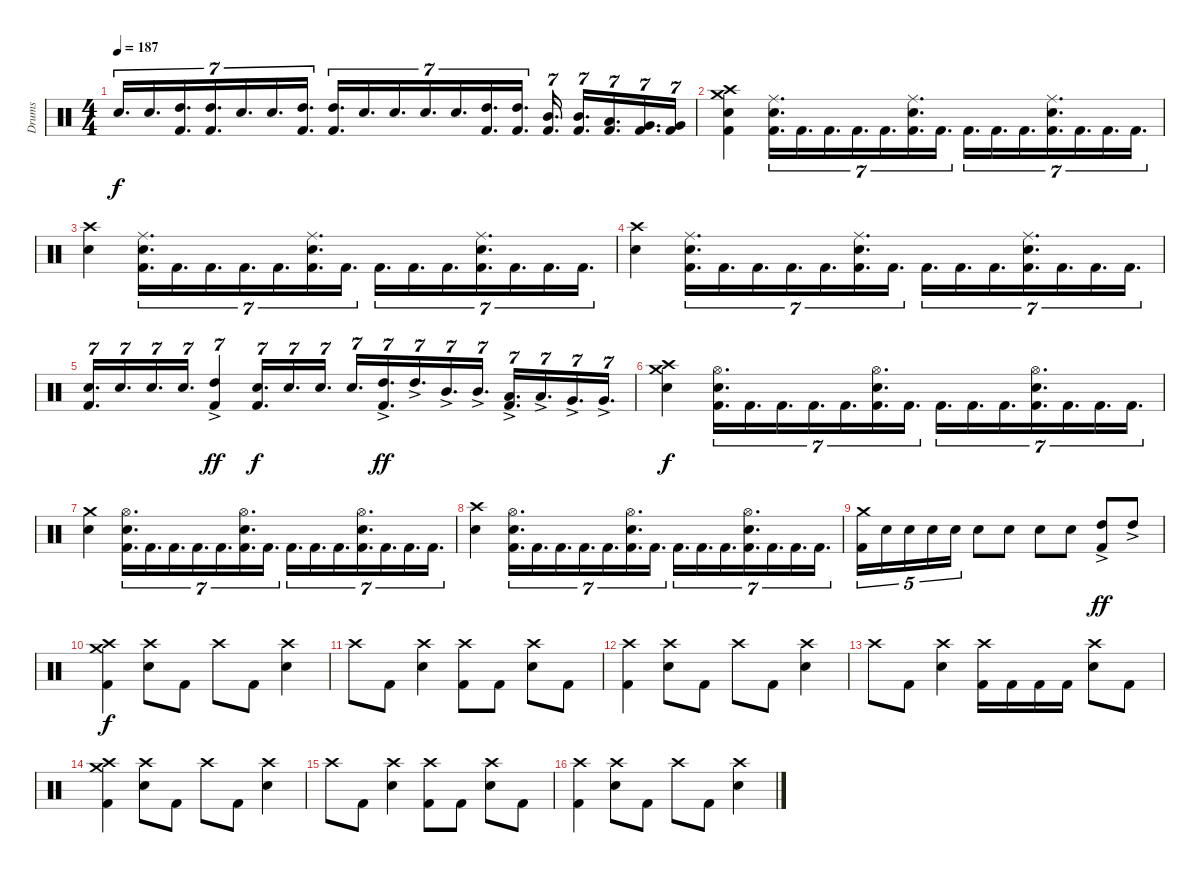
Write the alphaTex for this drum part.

\track ("Drums" "Drums") {instrument percussion}
\staff {score}
\articulation defaults
\ts (4 4)
\tempo 187
\clef neutral
\ks c "Snare (hit) 2".16{d tu (7 4) dy f} "Snare (hit) 2".16{d tu (7 4)}
("High Tom (hit)" "Kick (hit) 2").16{d tu (7 4)} ("High Tom (hit)" "Kick (hit) 2").16{d tu (7 4)} "Snare (hit) 2".16{d tu (7 4)} "Snare (hit) 2".16{d tu (7 4)} ("High Tom (hit)" "Kick (hit) 2").16{d tu (7 4)} ("High Tom (hit)" "Kick (hit) 2").16{d tu (7 4)} "Snare (hit) 2".16{d tu (7 4)} "Snare (hit) 2".16{d tu (7 4)} "Snare (hit) 2".16{d tu (7 4)} "Snare (hit) 2".16{d tu (7 4)} ("High Tom (hit)" "Kick (hit) 2").16{d tu (7 4)} ("High Tom (hit)" "Kick (hit) 2").16{d tu (7 4)} ("Mid Tom (hit)" "Kick (hit) 2").16{d tu (7 4)} ("Mid Tom (hit)" "Kick (hit) 2").16{d tu (7 4)} ("Low Tom (hit)" "Kick (hit) 2").16{d tu (7 4)} ("Very Low Tom (hit)" "Kick (hit) 2").16{d tu (7 4)} ("Very Low Tom (hit)" "Kick (hit) 2").16{tu (7 4)} |
("Crash high (hit)" "Crash medium (hit)" "Kick (hit) 2" "Snare (hit) 2").4 ("Ride (middle)" "Snare (hit) 2" "Kick (hit) 2").16{d tu (7 4)} "Kick (hit) 2".16{d tu (7 4)} "Kick (hit) 2".16{d tu (7 4)} "Kick (hit) 2".16{d tu (7 4)} "Kick (hit) 2".16{d tu (7 4)} ("Ride (middle)" "Snare (hit) 2" "Kick (hit) 2").16{d tu (7 4)} "Kick (hit) 2".16{d tu (7 4)} "Kick (hit) 2".16{d tu (7 4)} "Kick (hit) 2".16{d tu (7 4)} "Kick (hit) 2".16{d tu (7 4)} ("Kick (hit) 2" "Snare (hit) 2" "Ride (middle)").16{d tu (7 4)} "Kick (hit) 2".16{d tu (7 4)} "Kick (hit) 2".16{d tu (7 4)} "Kick (hit) 2".16{d tu (7 4)} |
("Crash high (hit)" "Snare (hit) 2").4 ("Ride (middle)" "Snare (hit) 2" "Kick (hit) 2").16{d tu (7 4)} "Kick (hit) 2".16{d tu (7 4)} "Kick (hit) 2".16{d tu (7 4)} "Kick (hit) 2".16{d tu (7 4)} "Kick (hit) 2".16{d tu (7 4)} ("Ride (middle)" "Snare (hit) 2" "Kick (hit) 2").16{d tu (7 4)} "Kick (hit) 2".16{d tu (7 4)} "Kick (hit) 2".16{d tu (7 4)} "Kick (hit) 2".16{d tu (7 4)} "Kick (hit) 2".16{d tu (7 4)} ("Kick (hit) 2" "Snare (hit) 2" "Ride (middle)").16{d tu (7 4)} "Kick (hit) 2".16{d tu (7 4)} "Kick (hit) 2".16{d tu (7 4)} "Kick (hit) 2".16{d tu (7 4)} |
("Crash high (hit)" "Snare (hit) 2").4 ("Ride (middle)" "Snare (hit) 2" "Kick (hit) 2").16{d tu (7 4)} "Kick (hit) 2".16{d tu (7 4)} "Kick (hit) 2".16{d tu (7 4)} "Kick (hit) 2".16{d tu (7 4)} "Kick (hit) 2".16{d tu (7 4)} ("Ride (middle)" "Snare (hit) 2" "Kick (hit) 2").16{d tu (7 4)} "Kick (hit) 2".16{d tu (7 4)} "Kick (hit) 2".16{d tu (7 4)} "Kick (hit) 2".16{d tu (7 4)} "Kick (hit) 2".16{d tu (7 4)} ("Kick (hit) 2" "Snare (hit) 2" "Ride (middle)").16{d tu (7 4)} "Kick (hit) 2".16{d tu (7 4)} "Kick (hit) 2".16{d tu (7 4)} "Kick (hit) 2".16{d tu (7 4)} |
("Snare (hit) 2" "Kick (hit) 2").16{d tu (7 4)} "Snare (hit) 2".16{d tu (7 4)} "Snare (hit) 2".16{d tu (7 4)} "Snare (hit) 2".16{d tu (7 4)} ("High Tom (hit)"{ac} "Kick (hit) 2").4{tu (7 4) dy ff} ("Snare (hit) 2" "Kick (hit) 2").16{d tu (7 4) dy f} "Snare (hit) 2".16{d tu (7 4)} "Snare (hit) 2".16{d tu (7 4)} "Snare (hit) 2".16{d tu (7 4)} ("High Tom (hit)"{ac} "Kick (hit) 2").16{d tu (7 4) dy ff} "High Tom (hit)"{ac}.16{d tu (7 4)} "Mid Tom (hit)"{ac}.16{d tu (7 4)} "Mid Tom (hit)"{ac}.16{d tu (7 4)} ("Low Tom (hit)"{ac} "Kick (hit) 2").16{d tu (7 4)} "Low Tom (hit)"{ac}.16{d tu (7 4)} "Very Low Tom (hit)"{ac}.16{d tu (7 4)} "Very Low Tom (hit)"{ac}.16{d tu (7 4)} |
("Crash high (hit)" "Snare (hit) 2" "Crash medium (hit)").4{dy f} ("Snare (hit) 2" "Kick (hit) 2" "Hi-Hat (open)").16{d tu (7 4)} "Kick (hit) 2".16{d tu (7 4)} "Kick (hit) 2".16{d tu (7 4)} "Kick (hit) 2".16{d tu (7 4)} "Kick (hit) 2".16{d tu (7 4)} ("Hi-Hat (open)" "Snare (hit) 2" "Kick (hit) 2").16{d tu (7 4)} "Kick (hit) 2".16{d tu (7 4)} "Kick (hit) 2".16{d tu (7 4)} "Kick (hit) 2".16{d tu (7 4)} "Kick (hit) 2".16{d tu (7 4)} ("Kick (hit) 2" "Snare (hit) 2" "Hi-Hat (open)").16{d tu (7 4)} "Kick (hit) 2".16{d tu (7 4)} "Kick (hit) 2".16{d tu (7 4)} "Kick (hit) 2".16{d tu (7 4)} |
("Crash medium (hit)" "Snare (hit) 2").4 ("Hi-Hat (open)" "Snare (hit) 2" "Kick (hit) 2").16{d tu (7 4)} "Kick (hit) 2".16{d tu (7 4)} "Kick (hit) 2".16{d tu (7 4)} "Kick (hit) 2".16{d tu (7 4)} "Kick (hit) 2".16{d tu (7 4)} ("Hi-Hat (open)" "Snare (hit) 2" "Kick (hit) 2").16{d tu (7 4)} "Kick (hit) 2".16{d tu (7 4)} "Kick (hit) 2".16{d tu (7 4)} "Kick (hit) 2".16{d tu (7 4)} "Kick (hit) 2".16{d tu (7 4)} ("Kick (hit) 2" "Snare (hit) 2" "Hi-Hat (open)").16{d tu (7 4)} "Kick (hit) 2".16{d tu (7 4)} "Kick (hit) 2".16{d tu (7 4)} "Kick (hit) 2".16{d tu (7 4)} |
("Crash high (hit)" "Snare (hit) 2").4 ("Hi-Hat (open)" "Snare (hit) 2" "Kick (hit) 2").16{d tu (7 4)} "Kick (hit) 2".16{d tu (7 4)} "Kick (hit) 2".16{d tu (7 4)} "Kick (hit) 2".16{d tu (7 4)} "Kick (hit) 2".16{d tu (7 4)} ("Hi-Hat (open)" "Snare (hit) 2" "Kick (hit) 2").16{d tu (7 4)} "Kick (hit) 2".16{d tu (7 4)} "Kick (hit) 2".16{d tu (7 4)} "Kick (hit) 2".16{d tu (7 4)} "Kick (hit) 2".16{d tu (7 4)} ("Kick (hit) 2" "Snare (hit) 2" "Hi-Hat (open)").16{d tu (7 4)} "Kick (hit) 2".16{d tu (7 4)} "Kick (hit) 2".16{d tu (7 4)} "Kick (hit) 2".16{d tu (7 4)} |
("Crash medium (hit)" "Kick (hit) 2").16{tu (5 4)} "Snare (hit) 2".16{tu (5 4)} "Snare (hit) 2".16{tu (5 4)} "Snare (hit) 2".16{tu (5 4)} "Snare (hit) 2".16{tu (5 4)} "Snare (hit) 2".8 "Snare (hit) 2".8 "Snare (hit) 2".8 "Snare (hit) 2".8 ("Kick (hit) 2" "High Tom (hit)"{ac}).8{dy ff} "High Tom (hit)"{ac}.8 |
("Crash high (hit)" "Crash medium (hit)" "Kick (hit) 2").4{dy f} ("Snare (hit) 2" "Crash high (hit)").8 "Kick (hit) 2".8 "Crash high (hit)".8 "Kick (hit) 2".8 ("Crash high (hit)" "Snare (hit) 2").4 |
"Crash high (hit)".8 "Kick (hit) 2".8 ("Crash high (hit)" "Snare (hit) 2").4 ("Crash high (hit)" "Kick (hit) 2").8 "Kick (hit) 2".8 ("Crash high (hit)" "Snare (hit) 2").8 "Kick (hit) 2".8 |
("Crash high (hit)" "Kick (hit) 2").4 ("Snare (hit) 2" "Crash high (hit)").8 "Kick (hit) 2".8 "Crash high (hit)".8 "Kick (hit) 2".8 ("Crash high (hit)" "Snare (hit) 2").4 |
"Crash high (hit)".8 "Kick (hit) 2".8 ("Crash high (hit)" "Snare (hit) 2").4 ("Crash high (hit)" "Kick (hit) 2").16 "Kick (hit) 2".16 "Kick (hit) 2".16 "Kick (hit) 2".16 ("Crash high (hit)" "Snare (hit) 2").8 "Kick (hit) 2".8 |
("Crash high (hit)" "Crash medium (hit)" "Kick (hit) 2").4 ("Snare (hit) 2" "Crash high (hit)").8 "Kick (hit) 2".8 "Crash high (hit)".8 "Kick (hit) 2".8 ("Crash high (hit)" "Snare (hit) 2").4 |
"Crash high (hit)".8 "Kick (hit) 2".8 ("Crash high (hit)" "Snare (hit) 2").4 ("Crash high (hit)" "Kick (hit) 2").8 "Kick (hit) 2".8 ("Crash high (hit)" "Snare (hit) 2").8 "Kick (hit) 2".8 |
("Crash high (hit)" "Kick (hit) 2").4 ("Snare (hit) 2" "Crash high (hit)").8 "Kick (hit) 2".8 "Crash high (hit)".8 "Kick (hit) 2".8 ("Crash high (hit)" "Snare (hit) 2").4
